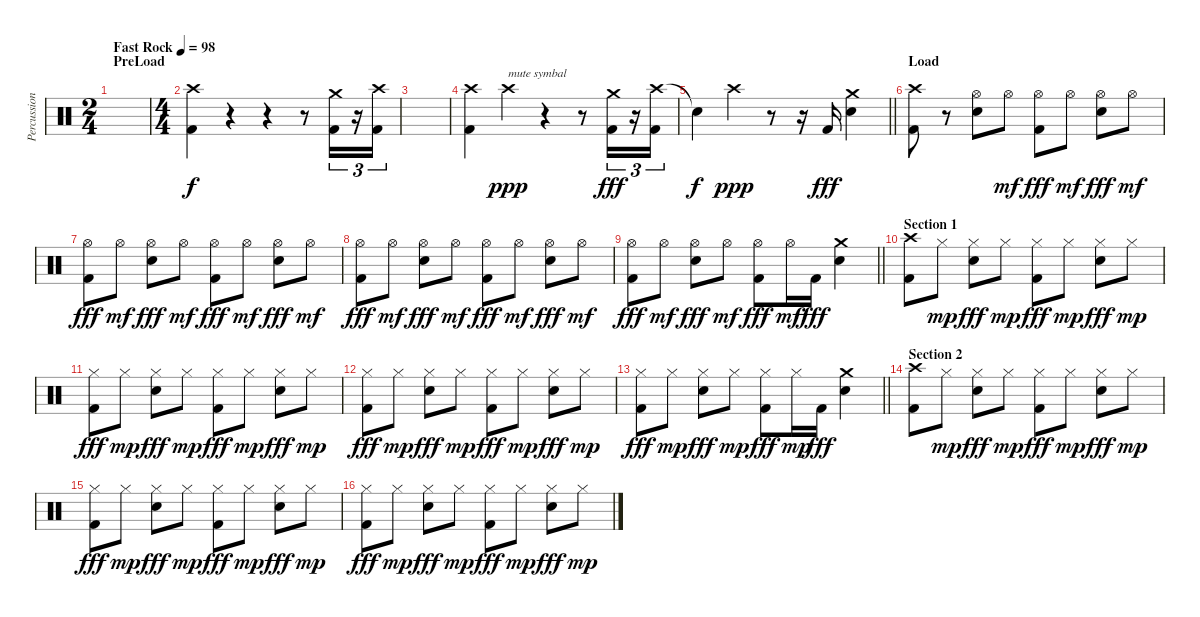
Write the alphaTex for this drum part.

\track ("Percussion" "Percussion") {instrument percussion}
\staff {score}
\articulation defaults
\ts (2 4)
\section ("" "PreLoad")
\tempo (98 "Fast Rock")
\clef neutral
\ks c
|
\ts (4 4)
("Crash high (hit)" "Kick (hit) 2").4 r.4 r.4 r.8 ("Crash medium (hit)" "Kick (hit) 2").16{tu (3 2)} r.16{tu (3 2)} ("Crash high (hit)" "Kick (hit) 2").16{tu (3 2)} |
|
("Crash high (hit)" "Kick (hit) 2").4 "Crash high (hit)".4{txt "mute symbal" dy ppp} r.4 r.8 ("Crash medium (hit)" "Kick (hit) 2").16{tu (3 2) dy fff} r.16{tu (3 2)} ("Crash high (hit)" "Kick (hit) 2").16{tu (3 2)} |
\barLineRight lightlight "Snare (hit)"{t}.4{dy f} "Crash high (hit)".4{dy ppp}
r.8 r.16 "Kick (hit) 2".16{dy fff} ("Crash medium (hit)" "Snare (hit) 2").4 |
\section ("" "Load")
("Crash high (hit)" "Kick (hit) 2").8 r.8 ("Hi-Hat (open)" "Snare (hit) 2").8 "Hi-Hat (open)".8{dy mf} ("Hi-Hat (open)" "Kick (hit) 2").8{dy fff} "Hi-Hat (open)".8{dy mf} ("Hi-Hat (open)" "Snare (hit) 2").8{dy fff} "Hi-Hat (open)".8{dy mf} |
("Hi-Hat (open)" "Kick (hit) 2").8{dy fff} "Hi-Hat (open)".8{dy mf} ("Hi-Hat (open)" "Snare (hit) 2").8{dy fff} "Hi-Hat (open)".8{dy mf} ("Hi-Hat (open)" "Kick (hit) 2").8{dy fff} "Hi-Hat (open)".8{dy mf} ("Hi-Hat (open)" "Snare (hit) 2").8{dy fff} "Hi-Hat (open)".8{dy mf} |
("Hi-Hat (open)" "Kick (hit) 2").8{dy fff} "Hi-Hat (open)".8{dy mf} ("Hi-Hat (open)" "Snare (hit) 2").8{dy fff} "Hi-Hat (open)".8{dy mf} ("Hi-Hat (open)" "Kick (hit) 2").8{dy fff} "Hi-Hat (open)".8{dy mf} ("Hi-Hat (open)" "Snare (hit) 2").8{dy fff} "Hi-Hat (open)".8{dy mf} |
\barLineRight lightlight
("Hi-Hat (open)" "Kick (hit) 2").8{dy fff} "Hi-Hat (open)".8{dy mf} ("Hi-Hat (open)" "Snare (hit) 2").8{dy fff} "Hi-Hat (open)".8{dy mf} ("Hi-Hat (open)" "Kick (hit) 2").8{dy fff} "Hi-Hat (open)".16{dy mf} "Kick (hit) 2".16{dy fff} ("Crash medium (hit)" "Snare (hit) 2").4 |
\section ("" "Section 1")
("Crash high (hit)" "Kick (hit) 2").8 "Hi-Hat (closed)".8{dy mp} ("Hi-Hat (closed)" "Snare (hit) 2").8{dy fff} "Hi-Hat (closed)".8{dy mp} ("Hi-Hat (closed)" "Kick (hit) 2").8{dy fff} "Hi-Hat (closed)".8{dy mp} ("Hi-Hat (closed)" "Snare (hit) 2").8{dy fff} "Hi-Hat (closed)".8{dy mp} |
("Hi-Hat (closed)" "Kick (hit) 2").8{dy fff} "Hi-Hat (closed)".8{dy mp} ("Hi-Hat (closed)" "Snare (hit) 2").8{dy fff} "Hi-Hat (closed)".8{dy mp} ("Hi-Hat (closed)" "Kick (hit) 2").8{dy fff} "Hi-Hat (closed)".8{dy mp} ("Hi-Hat (closed)" "Snare (hit) 2").8{dy fff} "Hi-Hat (closed)".8{dy mp} |
("Hi-Hat (closed)" "Kick (hit) 2").8{dy fff} "Hi-Hat (closed)".8{dy mp} ("Hi-Hat (closed)" "Snare (hit) 2").8{dy fff} "Hi-Hat (closed)".8{dy mp} ("Hi-Hat (closed)" "Kick (hit) 2").8{dy fff} "Hi-Hat (closed)".8{dy mp} ("Hi-Hat (closed)" "Snare (hit) 2").8{dy fff} "Hi-Hat (closed)".8{dy mp} |
\barLineRight lightlight
("Hi-Hat (closed)" "Kick (hit) 2").8{dy fff} "Hi-Hat (closed)".8{dy mp} ("Hi-Hat (closed)" "Snare (hit) 2").8{dy fff} "Hi-Hat (closed)".8{dy mp} ("Hi-Hat (closed)" "Kick (hit) 2").8{dy fff} "Hi-Hat (closed)".16{dy mp} "Kick (hit) 2".16{dy fff} ("Crash medium (hit)" "Snare (hit) 2").4 |
\section ("" "Section 2")
("Crash high (hit)" "Kick (hit) 2").8 "Hi-Hat (closed)".8{dy mp} ("Hi-Hat (closed)" "Snare (hit) 2").8{dy fff} "Hi-Hat (closed)".8{dy mp} ("Hi-Hat (closed)" "Kick (hit) 2").8{dy fff} "Hi-Hat (closed)".8{dy mp} ("Hi-Hat (closed)" "Snare (hit) 2").8{dy fff} "Hi-Hat (closed)".8{dy mp} |
("Hi-Hat (closed)" "Kick (hit) 2").8{dy fff} "Hi-Hat (closed)".8{dy mp} ("Hi-Hat (closed)" "Snare (hit) 2").8{dy fff} "Hi-Hat (closed)".8{dy mp} ("Hi-Hat (closed)" "Kick (hit) 2").8{dy fff} "Hi-Hat (closed)".8{dy mp} ("Hi-Hat (closed)" "Snare (hit) 2").8{dy fff} "Hi-Hat (closed)".8{dy mp} |
("Hi-Hat (closed)" "Kick (hit) 2").8{dy fff} "Hi-Hat (closed)".8{dy mp} ("Hi-Hat (closed)" "Snare (hit) 2").8{dy fff} "Hi-Hat (closed)".8{dy mp} ("Hi-Hat (closed)" "Kick (hit) 2").8{dy fff} "Hi-Hat (closed)".8{dy mp} ("Hi-Hat (closed)" "Snare (hit) 2").8{dy fff} "Hi-Hat (closed)".8{dy mp}
